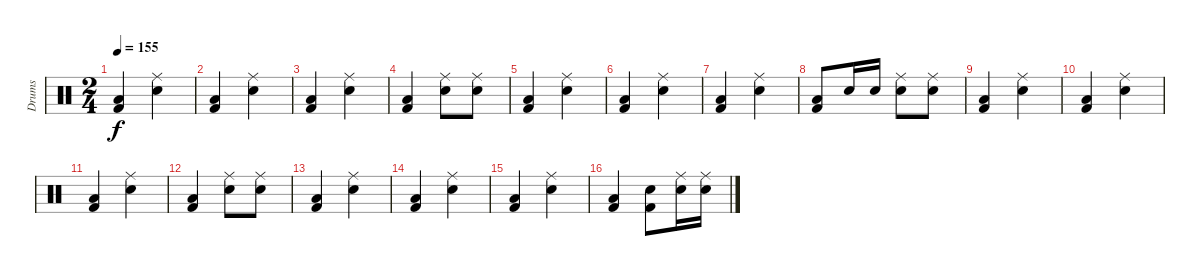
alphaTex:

\track ("Drums" "Drums") {instrument percussion}
\staff {score}
\articulation defaults
\ts (2 4)
\tempo 155
\clef neutral
\ks c
("Low Floor Tom (hit)" "Kick (hit) 2").4{dy f} ("Snare (hit) 2" "Ride (middle)").4 |
("Low Floor Tom (hit)" "Kick (hit) 2").4 ("Snare (hit) 2" "Ride (middle)").4 |
("Low Floor Tom (hit)" "Kick (hit) 2").4 ("Snare (hit) 2" "Ride (middle)").4 |
("Low Floor Tom (hit)" "Kick (hit) 2").4 ("Snare (hit) 2" "Ride (middle)").8 ("Snare (hit) 2" "Ride (middle)").8 |
("Low Floor Tom (hit)" "Kick (hit) 2").4 ("Snare (hit) 2" "Ride (middle)").4 |
("Low Floor Tom (hit)" "Kick (hit) 2").4 ("Snare (hit) 2" "Ride (middle)").4 |
("Low Floor Tom (hit)" "Kick (hit) 2").4 ("Snare (hit) 2" "Ride (middle)").4 |
("Low Floor Tom (hit)" "Kick (hit) 2").8 "Snare (hit) 2".16 "Snare (hit) 2".16 ("Snare (hit) 2" "Ride (middle)").8 ("Snare (hit) 2" "Ride (middle)").8 |
("Low Floor Tom (hit)" "Kick (hit) 2").4 ("Snare (hit) 2" "Ride (middle)").4 |
("Low Floor Tom (hit)" "Kick (hit) 2").4 ("Snare (hit) 2" "Ride (middle)").4 |
("Low Floor Tom (hit)" "Kick (hit) 2").4 ("Snare (hit) 2" "Ride (middle)").4 |
("Low Floor Tom (hit)" "Kick (hit) 2").4 ("Snare (hit) 2" "Ride (middle)").8 ("Snare (hit) 2" "Ride (middle)").8 |
("Low Floor Tom (hit)" "Kick (hit) 2").4 ("Snare (hit) 2" "Ride (middle)").4 |
("Low Floor Tom (hit)" "Kick (hit) 2").4 ("Snare (hit) 2" "Ride (middle)").4 |
("Low Floor Tom (hit)" "Kick (hit) 2").4 ("Snare (hit) 2" "Ride (middle)").4 |
("Low Floor Tom (hit)" "Kick (hit) 2").4 ("Snare (hit) 2" "Kick (hit) 2").8 ("Snare (hit) 2" "Ride (middle)").16 ("Snare (hit) 2" "Ride (middle)").16
